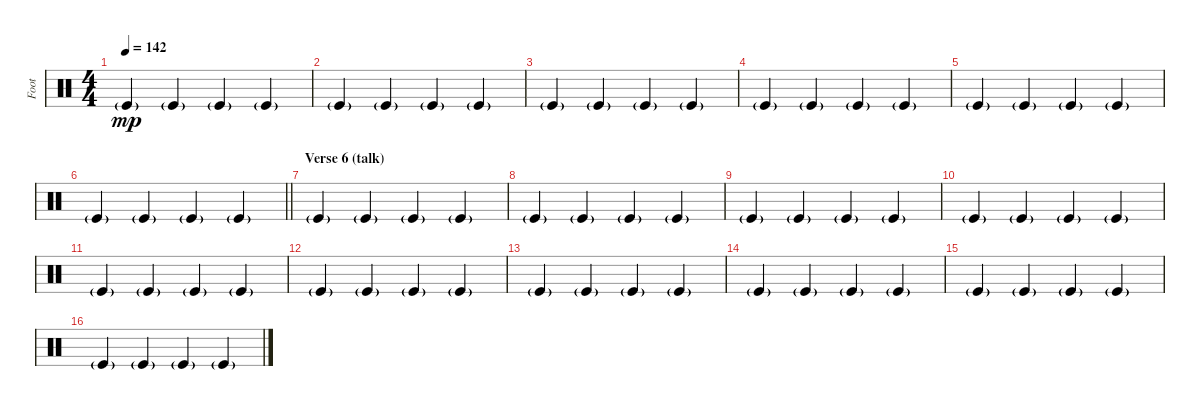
\track ("Foot" "Foot") {instrument percussion}
\staff {score}
\articulation defaults
\ts (4 4)
\tempo 142
\clef neutral
\ks c "Kick (hit)"{g}.4{dy mp} "Kick (hit)"{g}.4 "Kick (hit)"{g}.4 "Kick (hit)"{g}.4
|
"Kick (hit)"{g}.4 "Kick (hit)"{g}.4 "Kick (hit)"{g}.4 "Kick (hit)"{g}.4 |
"Kick (hit)"{g}.4 "Kick (hit)"{g}.4 "Kick (hit)"{g}.4 "Kick (hit)"{g}.4 |
"Kick (hit)"{g}.4 "Kick (hit)"{g}.4 "Kick (hit)"{g}.4 "Kick (hit)"{g}.4 |
"Kick (hit)"{g}.4 "Kick (hit)"{g}.4 "Kick (hit)"{g}.4 "Kick (hit)"{g}.4 |
\barLineRight lightlight "Kick (hit)"{g}.4 "Kick (hit)"{g}.4 "Kick (hit)"{g}.4 "Kick (hit)"{g}.4
|
\section ("" "Verse 6 (talk)")
"Kick (hit)"{g}.4 "Kick (hit)"{g}.4 "Kick (hit)"{g}.4 "Kick (hit)"{g}.4 |
"Kick (hit)"{g}.4 "Kick (hit)"{g}.4 "Kick (hit)"{g}.4 "Kick (hit)"{g}.4 |
"Kick (hit)"{g}.4 "Kick (hit)"{g}.4 "Kick (hit)"{g}.4 "Kick (hit)"{g}.4 |
"Kick (hit)"{g}.4 "Kick (hit)"{g}.4 "Kick (hit)"{g}.4 "Kick (hit)"{g}.4 |
"Kick (hit)"{g}.4 "Kick (hit)"{g}.4 "Kick (hit)"{g}.4 "Kick (hit)"{g}.4 |
"Kick (hit)"{g}.4 "Kick (hit)"{g}.4 "Kick (hit)"{g}.4 "Kick (hit)"{g}.4 |
"Kick (hit)"{g}.4 "Kick (hit)"{g}.4 "Kick (hit)"{g}.4 "Kick (hit)"{g}.4 |
"Kick (hit)"{g}.4 "Kick (hit)"{g}.4 "Kick (hit)"{g}.4 "Kick (hit)"{g}.4 |
"Kick (hit)"{g}.4 "Kick (hit)"{g}.4 "Kick (hit)"{g}.4 "Kick (hit)"{g}.4 |
"Kick (hit)"{g}.4 "Kick (hit)"{g}.4 "Kick (hit)"{g}.4 "Kick (hit)"{g}.4
